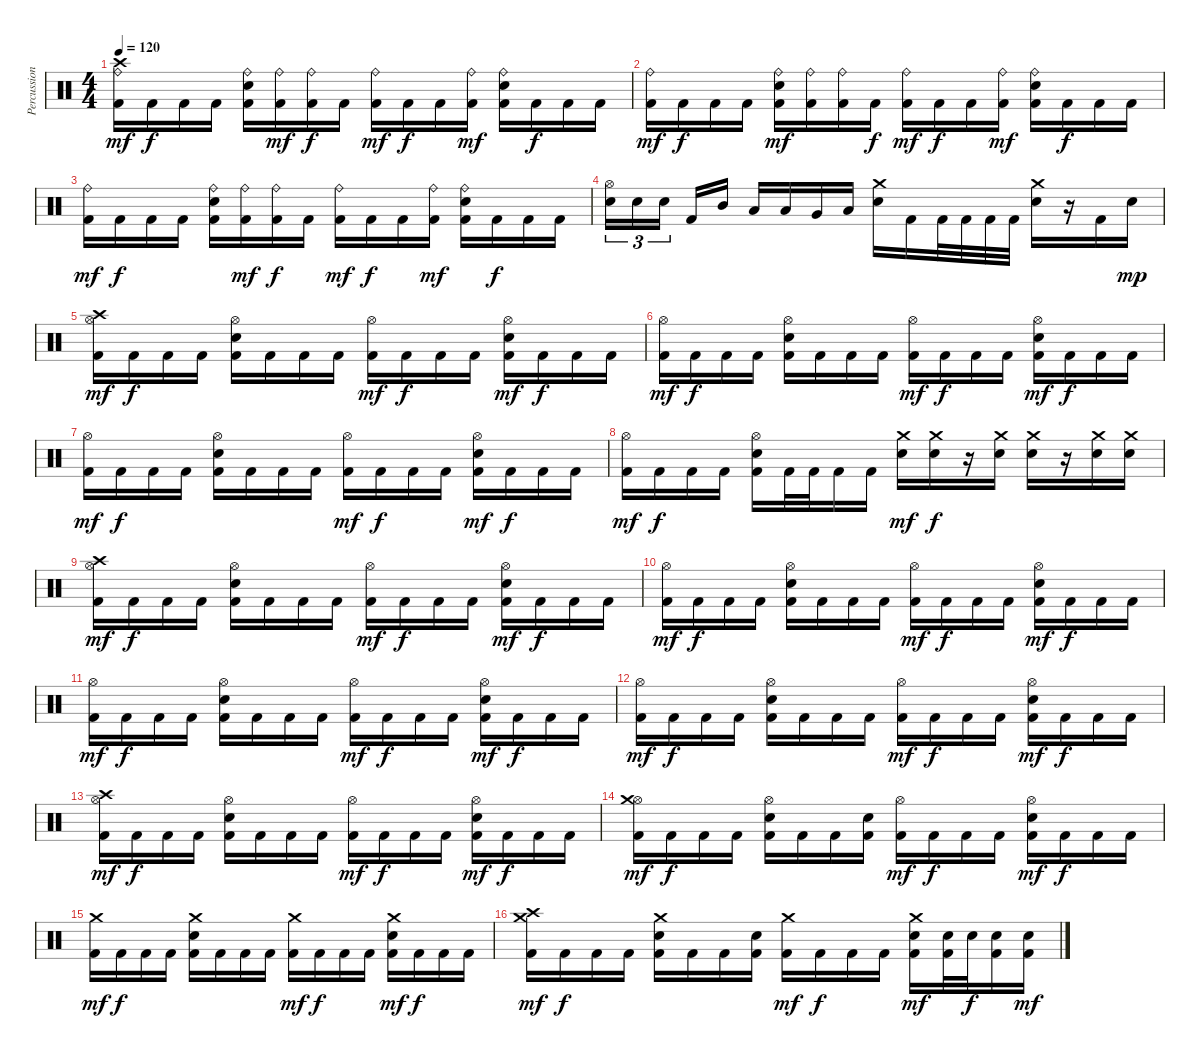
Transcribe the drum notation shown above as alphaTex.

\track ("Percussion" "Percussion") {instrument percussion}
\staff {score}
\articulation defaults
\ts (4 4)
\tempo 120
\clef neutral
\ks c
("Ride (bell)" "Crash high (hit)" "Kick (hit) 2").16{dy mf} "Kick (hit) 2".16{dy f} "Kick (hit) 2".16 "Kick (hit) 2".16 ("Ride (bell)" "Electric Snare (hit)" "Kick (hit) 2").16 ("Ride (bell)" "Kick (hit) 2").16{dy mf} ("Ride (bell)" "Kick (hit) 2").16{dy f} "Kick (hit) 2".16 ("Ride (bell)" "Kick (hit) 2").16{dy mf} "Kick (hit) 2".16{dy f} "Kick (hit) 2".16 ("Ride (bell)" "Kick (hit) 2").16{dy mf} ("Ride (bell)" "Electric Snare (hit)" "Kick (hit) 2").16 "Kick (hit) 2".16{dy f} "Kick (hit) 2".16 "Kick (hit) 2".16 |
("Ride (bell)" "Kick (hit) 2").16{dy mf} "Kick (hit) 2".16{dy f} "Kick (hit) 2".16 "Kick (hit) 2".16 ("Ride (bell)" "Electric Snare (hit)" "Kick (hit) 2").16{dy mf} ("Ride (bell)" "Kick (hit) 2").16 ("Ride (bell)" "Kick (hit) 2").16 "Kick (hit) 2".16{dy f} ("Ride (bell)" "Kick (hit) 2").16{dy mf} "Kick (hit) 2".16{dy f} "Kick (hit) 2".16 ("Ride (bell)" "Kick (hit) 2").16{dy mf} ("Ride (bell)" "Electric Snare (hit)" "Kick (hit) 2").16 "Kick (hit) 2".16{dy f} "Kick (hit) 2".16 "Kick (hit) 2".16 |
("Ride (bell)" "Kick (hit) 2").16{dy mf} "Kick (hit) 2".16{dy f} "Kick (hit) 2".16 "Kick (hit) 2".16 ("Ride (bell)" "Electric Snare (hit)" "Kick (hit) 2").16 ("Ride (bell)" "Kick (hit) 2").16{dy mf} ("Ride (bell)" "Kick (hit) 2").16{dy f} "Kick (hit) 2".16 ("Ride (bell)" "Kick (hit) 2").16{dy mf} "Kick (hit) 2".16{dy f} "Kick (hit) 2".16 ("Ride (bell)" "Kick (hit) 2").16{dy mf} ("Ride (bell)" "Electric Snare (hit)" "Kick (hit) 2").16 "Kick (hit) 2".16{dy f} "Kick (hit) 2".16 "Kick (hit) 2".16 |
("Hi-Hat (open)" "Electric Snare (hit)").16{tu (3 2)} "Electric Snare (hit)".16{tu (3 2)} "Electric Snare (hit)".16{tu (3 2)} "Kick (hit) 2".16 "Mid Tom (hit)".16 "Low Tom (hit)".16 "Low Tom (hit)".16 "Very Low Tom (hit)".16 "Low Floor Tom (hit)".16 ("Crash medium (hit)" "Electric Snare (hit)").16 "Kick (hit) 2".16 "Kick (hit) 2".32 "Kick (hit) 2".32 "Kick (hit) 2".32 "Kick (hit) 2".32 ("Crash medium (hit)" "Electric Snare (hit)").16 r.16 "Kick (hit) 2".16 "Electric Snare (hit)".16{dy mp} |
("Hi-Hat (open)" "Crash high (hit)" "Kick (hit) 2").16{dy mf} "Kick (hit) 2".16{dy f} "Kick (hit) 2".16 "Kick (hit) 2".16 ("Hi-Hat (open)" "Electric Snare (hit)" "Kick (hit) 2").16 "Kick (hit) 2".16 "Kick (hit) 2".16 "Kick (hit) 2".16 ("Hi-Hat (open)" "Kick (hit) 2").16{dy mf} "Kick (hit) 2".16{dy f} "Kick (hit) 2".16 "Kick (hit) 2".16 ("Hi-Hat (open)" "Electric Snare (hit)" "Kick (hit) 2").16{dy mf} "Kick (hit) 2".16{dy f} "Kick (hit) 2".16 "Kick (hit) 2".16 |
("Hi-Hat (open)" "Kick (hit) 2").16{dy mf} "Kick (hit) 2".16{dy f} "Kick (hit) 2".16 "Kick (hit) 2".16 ("Hi-Hat (open)" "Electric Snare (hit)" "Kick (hit) 2").16 "Kick (hit) 2".16 "Kick (hit) 2".16 "Kick (hit) 2".16 ("Hi-Hat (open)" "Kick (hit) 2").16{dy mf} "Kick (hit) 2".16{dy f} "Kick (hit) 2".16 "Kick (hit) 2".16 ("Hi-Hat (open)" "Electric Snare (hit)" "Kick (hit) 2").16{dy mf} "Kick (hit) 2".16{dy f} "Kick (hit) 2".16 "Kick (hit) 2".16 |
("Hi-Hat (open)" "Kick (hit) 2").16{dy mf} "Kick (hit) 2".16{dy f} "Kick (hit) 2".16 "Kick (hit) 2".16 ("Hi-Hat (open)" "Electric Snare (hit)" "Kick (hit) 2").16 "Kick (hit) 2".16 "Kick (hit) 2".16 "Kick (hit) 2".16 ("Hi-Hat (open)" "Kick (hit) 2").16{dy mf} "Kick (hit) 2".16{dy f} "Kick (hit) 2".16 "Kick (hit) 2".16 ("Hi-Hat (open)" "Electric Snare (hit)" "Kick (hit) 2").16{dy mf} "Kick (hit) 2".16{dy f} "Kick (hit) 2".16 "Kick (hit) 2".16 |
("Hi-Hat (open)" "Kick (hit) 2").16{dy mf} "Kick (hit) 2".16{dy f} "Kick (hit) 2".16 "Kick (hit) 2".16 ("Hi-Hat (open)" "Electric Snare (hit)" "Kick (hit) 2").16 "Kick (hit) 2".32 "Kick (hit) 2".32 "Kick (hit) 2".16 "Kick (hit) 2".16 ("Crash medium (hit)" "Electric Snare (hit)").16{dy mf} ("Crash medium (hit)" "Electric Snare (hit)").16{dy f} r.16 ("Crash medium (hit)" "Electric Snare (hit)").16 ("Crash medium (hit)" "Electric Snare (hit)").16 r.16 ("Crash medium (hit)" "Electric Snare (hit)").16 ("Crash medium (hit)" "Electric Snare (hit)").16 |
("Hi-Hat (open)" "Crash high (hit)" "Kick (hit) 2").16{dy mf} "Kick (hit) 2".16{dy f} "Kick (hit) 2".16 "Kick (hit) 2".16 ("Hi-Hat (open)" "Electric Snare (hit)" "Kick (hit) 2").16 "Kick (hit) 2".16 "Kick (hit) 2".16 "Kick (hit) 2".16 ("Hi-Hat (open)" "Kick (hit) 2").16{dy mf} "Kick (hit) 2".16{dy f} "Kick (hit) 2".16 "Kick (hit) 2".16 ("Hi-Hat (open)" "Electric Snare (hit)" "Kick (hit) 2").16{dy mf} "Kick (hit) 2".16{dy f} "Kick (hit) 2".16 "Kick (hit) 2".16 |
("Hi-Hat (open)" "Kick (hit) 2").16{dy mf} "Kick (hit) 2".16{dy f} "Kick (hit) 2".16 "Kick (hit) 2".16 ("Hi-Hat (open)" "Electric Snare (hit)" "Kick (hit) 2").16 "Kick (hit) 2".16 "Kick (hit) 2".16 "Kick (hit) 2".16 ("Hi-Hat (open)" "Kick (hit) 2").16{dy mf} "Kick (hit) 2".16{dy f} "Kick (hit) 2".16 "Kick (hit) 2".16 ("Hi-Hat (open)" "Electric Snare (hit)" "Kick (hit) 2").16{dy mf} "Kick (hit) 2".16{dy f} "Kick (hit) 2".16 "Kick (hit) 2".16 |
("Hi-Hat (open)" "Kick (hit) 2").16{dy mf} "Kick (hit) 2".16{dy f} "Kick (hit) 2".16 "Kick (hit) 2".16 ("Hi-Hat (open)" "Electric Snare (hit)" "Kick (hit) 2").16 "Kick (hit) 2".16 "Kick (hit) 2".16 "Kick (hit) 2".16 ("Hi-Hat (open)" "Kick (hit) 2").16{dy mf} "Kick (hit) 2".16{dy f} "Kick (hit) 2".16 "Kick (hit) 2".16 ("Hi-Hat (open)" "Electric Snare (hit)" "Kick (hit) 2").16{dy mf} "Kick (hit) 2".16{dy f} "Kick (hit) 2".16 "Kick (hit) 2".16 |
("Hi-Hat (open)" "Kick (hit) 2").16{dy mf} "Kick (hit) 2".16{dy f} "Kick (hit) 2".16 "Kick (hit) 2".16 ("Hi-Hat (open)" "Electric Snare (hit)" "Kick (hit) 2").16 "Kick (hit) 2".16 "Kick (hit) 2".16 "Kick (hit) 2".16 ("Hi-Hat (open)" "Kick (hit) 2").16{dy mf} "Kick (hit) 2".16{dy f} "Kick (hit) 2".16 "Kick (hit) 2".16 ("Hi-Hat (open)" "Electric Snare (hit)" "Kick (hit) 2").16{dy mf} "Kick (hit) 2".16{dy f} "Kick (hit) 2".16 "Kick (hit) 2".16 |
("Hi-Hat (open)" "Crash high (hit)" "Kick (hit) 2").16{dy mf} "Kick (hit) 2".16{dy f} "Kick (hit) 2".16 "Kick (hit) 2".16 ("Hi-Hat (open)" "Electric Snare (hit)" "Kick (hit) 2").16 "Kick (hit) 2".16 "Kick (hit) 2".16 "Kick (hit) 2".16 ("Hi-Hat (open)" "Kick (hit) 2").16{dy mf} "Kick (hit) 2".16{dy f} "Kick (hit) 2".16 "Kick (hit) 2".16 ("Hi-Hat (open)" "Electric Snare (hit)" "Kick (hit) 2").16{dy mf} "Kick (hit) 2".16{dy f} "Kick (hit) 2".16 "Kick (hit) 2".16 |
("Hi-Hat (open)" "Crash medium (hit)" "Kick (hit) 2").16{dy mf} "Kick (hit) 2".16{dy f} "Kick (hit) 2".16 "Kick (hit) 2".16 ("Hi-Hat (open)" "Electric Snare (hit)" "Kick (hit) 2").16 "Kick (hit) 2".16 "Kick (hit) 2".16 ("Electric Snare (hit)" "Kick (hit) 2").16 ("Hi-Hat (open)" "Kick (hit) 2").16{dy mf} "Kick (hit) 2".16{dy f} "Kick (hit) 2".16 "Kick (hit) 2".16 ("Hi-Hat (open)" "Electric Snare (hit)" "Kick (hit) 2").16{dy mf} "Kick (hit) 2".16{dy f} "Kick (hit) 2".16 "Kick (hit) 2".16 |
("Crash medium (hit)" "Kick (hit) 2").16{dy mf} "Kick (hit) 2".16{dy f} "Kick (hit) 2".16 "Kick (hit) 2".16 ("Crash medium (hit)" "Electric Snare (hit)" "Kick (hit) 2").16 "Kick (hit) 2".16 "Kick (hit) 2".16 "Kick (hit) 2".16 ("Crash medium (hit)" "Kick (hit) 2").16{dy mf} "Kick (hit) 2".16{dy f} "Kick (hit) 2".16 "Kick (hit) 2".16 ("Crash medium (hit)" "Electric Snare (hit)" "Kick (hit) 2").16{dy mf} "Kick (hit) 2".16{dy f} "Kick (hit) 2".16 "Kick (hit) 2".16 |
("Crash medium (hit)" "Crash high (hit)" "Kick (hit) 2").16{dy mf} "Kick (hit) 2".16{dy f} "Kick (hit) 2".16 "Kick (hit) 2".16 ("Crash medium (hit)" "Electric Snare (hit)" "Kick (hit) 2").16 "Kick (hit) 2".16 "Kick (hit) 2".16 ("Electric Snare (hit)" "Kick (hit) 2").16 ("Crash medium (hit)" "Kick (hit) 2").16{dy mf} "Kick (hit) 2".16{dy f} "Kick (hit) 2".16 "Kick (hit) 2".16 ("Crash medium (hit)" "Electric Snare (hit)" "Kick (hit) 2").16{dy mf} ("Electric Snare (hit)" "Kick (hit) 2").32 "Electric Snare (hit)".32{dy f} ("Electric Snare (hit)" "Kick (hit) 2").16 ("Electric Snare (hit)" "Kick (hit) 2").16{dy mf}
